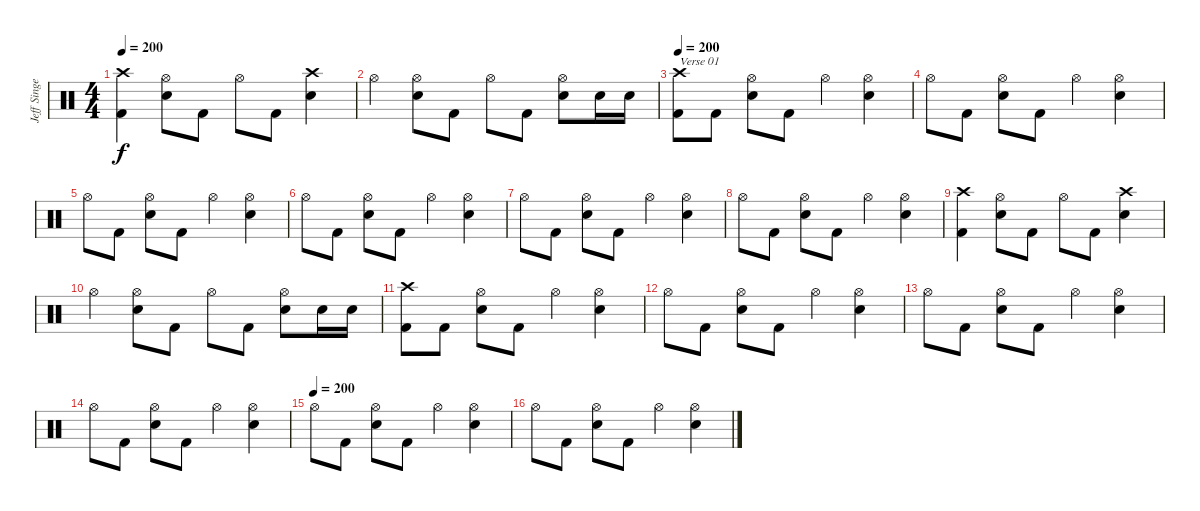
\track ("Jeff Singer" "Jeff Singe") {instrument percussion}
\staff {score}
\articulation defaults
\ts (4 4)
\tempo 200
\clef neutral
\ks c
("Crash high (hit)" "Kick (hit) 2").4{dy f} ("Hi-Hat (open)" "Snare (hit) 2").8 "Kick (hit) 2".8 "Hi-Hat (open)".8 "Kick (hit) 2".8 ("Crash high (hit)" "Snare (hit) 2").4 |
"Hi-Hat (open)".4 ("Hi-Hat (open)" "Snare (hit) 2").8 "Kick (hit) 2".8 "Hi-Hat (open)".8 "Kick (hit) 2".8 ("Hi-Hat (open)" "Snare (hit) 2").8 "Snare (hit) 2".16 "Snare (hit) 2".16 |
\tempo 200
("Crash high (hit)" "Kick (hit) 2").8{txt "Verse 01"} "Kick (hit) 2".8 ("Hi-Hat (open)" "Snare (hit) 2").8 "Kick (hit) 2".8 "Hi-Hat (open)".4 ("Hi-Hat (open)" "Snare (hit) 2").4 |
"Hi-Hat (open)".8 "Kick (hit) 2".8 ("Hi-Hat (open)" "Snare (hit) 2").8 "Kick (hit) 2".8 "Hi-Hat (open)".4 ("Hi-Hat (open)" "Snare (hit) 2").4 |
"Hi-Hat (open)".8 "Kick (hit) 2".8 ("Hi-Hat (open)" "Snare (hit) 2").8 "Kick (hit) 2".8 "Hi-Hat (open)".4 ("Hi-Hat (open)" "Snare (hit) 2").4 |
"Hi-Hat (open)".8 "Kick (hit) 2".8 ("Hi-Hat (open)" "Snare (hit) 2").8 "Kick (hit) 2".8 "Hi-Hat (open)".4 ("Hi-Hat (open)" "Snare (hit) 2").4 |
"Hi-Hat (open)".8 "Kick (hit) 2".8 ("Hi-Hat (open)" "Snare (hit) 2").8 "Kick (hit) 2".8 "Hi-Hat (open)".4 ("Hi-Hat (open)" "Snare (hit) 2").4 |
"Hi-Hat (open)".8 "Kick (hit) 2".8 ("Hi-Hat (open)" "Snare (hit) 2").8 "Kick (hit) 2".8 "Hi-Hat (open)".4 ("Hi-Hat (open)" "Snare (hit) 2").4 |
("Crash high (hit)" "Kick (hit) 2").4 ("Hi-Hat (open)" "Snare (hit) 2").8 "Kick (hit) 2".8 "Hi-Hat (open)".8 "Kick (hit) 2".8 ("Crash high (hit)" "Snare (hit) 2").4 |
"Hi-Hat (open)".4 ("Hi-Hat (open)" "Snare (hit) 2").8 "Kick (hit) 2".8 "Hi-Hat (open)".8 "Kick (hit) 2".8 ("Hi-Hat (open)" "Snare (hit) 2").8 "Snare (hit) 2".16 "Snare (hit) 2".16 |
("Crash high (hit)" "Kick (hit) 2").8 "Kick (hit) 2".8 ("Hi-Hat (open)" "Snare (hit) 2").8 "Kick (hit) 2".8 "Hi-Hat (open)".4 ("Hi-Hat (open)" "Snare (hit) 2").4 |
"Hi-Hat (open)".8 "Kick (hit) 2".8 ("Hi-Hat (open)" "Snare (hit) 2").8 "Kick (hit) 2".8 "Hi-Hat (open)".4 ("Hi-Hat (open)" "Snare (hit) 2").4 |
"Hi-Hat (open)".8 "Kick (hit) 2".8 ("Hi-Hat (open)" "Snare (hit) 2").8 "Kick (hit) 2".8 "Hi-Hat (open)".4 ("Hi-Hat (open)" "Snare (hit) 2").4 |
"Hi-Hat (open)".8 "Kick (hit) 2".8 ("Hi-Hat (open)" "Snare (hit) 2").8 "Kick (hit) 2".8 "Hi-Hat (open)".4 ("Hi-Hat (open)" "Snare (hit) 2").4 |
\tempo (200)
"Hi-Hat (open)".8 "Kick (hit) 2".8 ("Hi-Hat (open)" "Snare (hit) 2").8 "Kick (hit) 2".8 "Hi-Hat (open)".4 ("Hi-Hat (open)" "Snare (hit) 2").4 |
"Hi-Hat (open)".8 "Kick (hit) 2".8 ("Hi-Hat (open)" "Snare (hit) 2").8 "Kick (hit) 2".8 "Hi-Hat (open)".4 ("Hi-Hat (open)" "Snare (hit) 2").4
